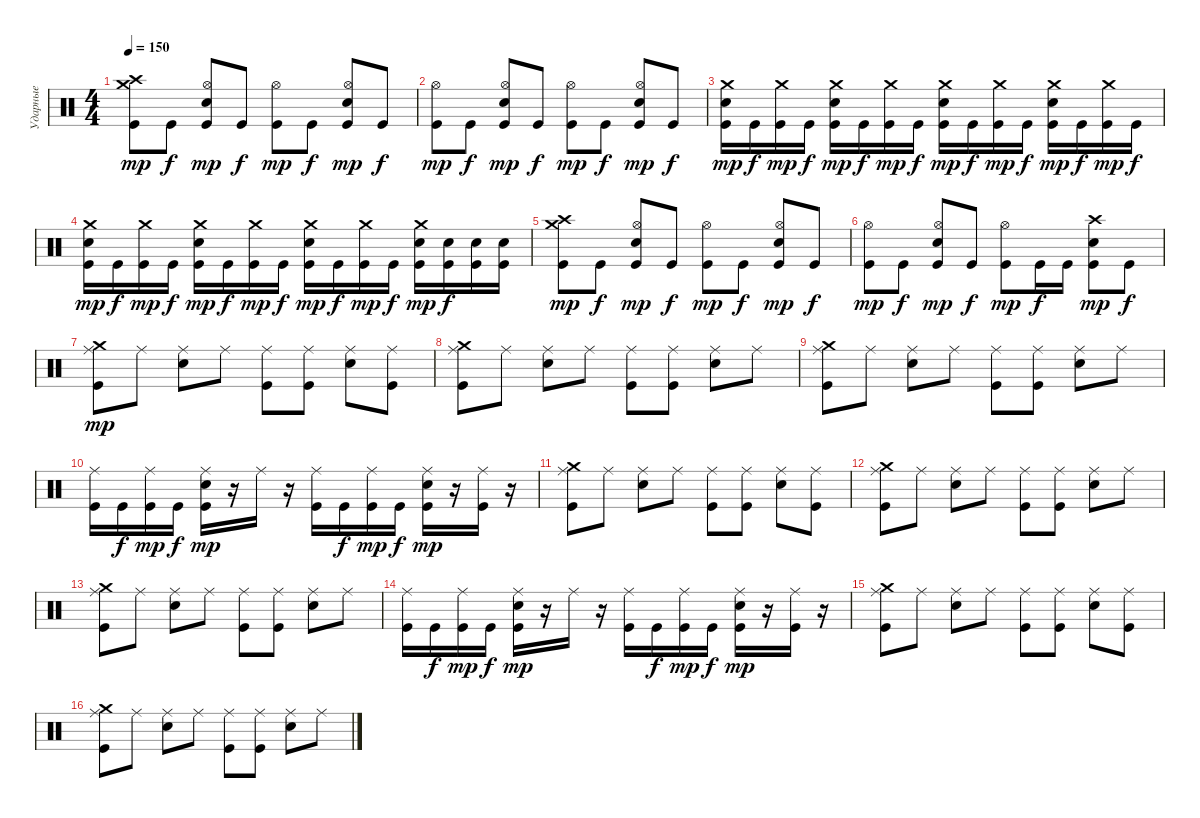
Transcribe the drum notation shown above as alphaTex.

\track ("Ударные" "Ударные") {instrument percussion}
\staff {score}
\articulation defaults
\ts (4 4)
\tempo 150
\clef neutral
\ks c
("Crash medium (hit)" "Crash high (hit)" "Kick (hit)").8{dy mp} "Kick (hit)".8{dy f} ("Hi-Hat (open)" "Electric Snare (hit)" "Kick (hit)").8{dy mp} "Kick (hit)".8{dy f} ("Hi-Hat (open)" "Kick (hit)").8{dy mp} "Kick (hit)".8{dy f} ("Hi-Hat (open)" "Electric Snare (hit)" "Kick (hit)").8{dy mp} "Kick (hit)".8{dy f} |
("Hi-Hat (open)" "Kick (hit)").8{dy mp} "Kick (hit)".8{dy f} ("Hi-Hat (open)" "Electric Snare (hit)" "Kick (hit)").8{dy mp} "Kick (hit)".8{dy f} ("Hi-Hat (open)" "Kick (hit)").8{dy mp} "Kick (hit)".8{dy f} ("Hi-Hat (open)" "Electric Snare (hit)" "Kick (hit)").8{dy mp} "Kick (hit)".8{dy f} |
("Crash medium (hit)" "Electric Snare (hit)" "Kick (hit)").16{dy mp} "Kick (hit)".16{dy f} ("Crash medium (hit)" "Kick (hit)").16{dy mp} "Kick (hit)".16{dy f} ("Crash medium (hit)" "Electric Snare (hit)" "Kick (hit)").16{dy mp} "Kick (hit)".16{dy f} ("Crash medium (hit)" "Kick (hit)").16{dy mp} "Kick (hit)".16{dy f} ("Crash medium (hit)" "Electric Snare (hit)" "Kick (hit)").16{dy mp} "Kick (hit)".16{dy f} ("Crash medium (hit)" "Kick (hit)").16{dy mp} "Kick (hit)".16{dy f} ("Crash medium (hit)" "Electric Snare (hit)" "Kick (hit)").16{dy mp} "Kick (hit)".16{dy f} ("Crash medium (hit)" "Kick (hit)").16{dy mp} "Kick (hit)".16{dy f} |
("Crash medium (hit)" "Electric Snare (hit)" "Kick (hit)").16{dy mp} "Kick (hit)".16{dy f} ("Crash medium (hit)" "Kick (hit)").16{dy mp} "Kick (hit)".16{dy f} ("Crash medium (hit)" "Electric Snare (hit)" "Kick (hit)").16{dy mp} "Kick (hit)".16{dy f} ("Crash medium (hit)" "Kick (hit)").16{dy mp} "Kick (hit)".16{dy f} ("Crash medium (hit)" "Electric Snare (hit)" "Kick (hit)").16{dy mp} "Kick (hit)".16{dy f} ("Crash medium (hit)" "Kick (hit)").16{dy mp} "Kick (hit)".16{dy f} ("Crash medium (hit)" "Electric Snare (hit)" "Kick (hit)").16{dy mp} ("Electric Snare (hit)" "Kick (hit)").16{dy f} ("Electric Snare (hit)" "Kick (hit)").16 ("Electric Snare (hit)" "Kick (hit)").16 |
("Crash medium (hit)" "Crash high (hit)" "Kick (hit)").8{dy mp} "Kick (hit)".8{dy f} ("Hi-Hat (open)" "Electric Snare (hit)" "Kick (hit)").8{dy mp} "Kick (hit)".8{dy f} ("Hi-Hat (open)" "Kick (hit)").8{dy mp} "Kick (hit)".8{dy f} ("Hi-Hat (open)" "Electric Snare (hit)" "Kick (hit)").8{dy mp} "Kick (hit)".8{dy f} |
("Hi-Hat (open)" "Kick (hit)").8{dy mp} "Kick (hit)".8{dy f} ("Hi-Hat (open)" "Electric Snare (hit)" "Kick (hit)").8{dy mp} "Kick (hit)".8{dy f} ("Hi-Hat (open)" "Kick (hit)").8{dy mp} "Kick (hit)".16{dy f} "Kick (hit)".16 ("Crash high (hit)" "Electric Snare (hit)" "Kick (hit)").8{dy mp} "Kick (hit)".8{dy f} |
("Crash medium (hit)" "Ride (middle)" "Kick (hit)").8{dy mp} "Ride (middle)".8 ("Ride (middle)" "Electric Snare (hit)").8 "Ride (middle)".8 ("Ride (middle)" "Kick (hit)").8 ("Ride (middle)" "Kick (hit)").8 ("Ride (middle)" "Electric Snare (hit)").8 ("Ride (middle)" "Kick (hit)").8 |
("Crash medium (hit)" "Ride (middle)" "Kick (hit)").8 "Ride (middle)".8 ("Ride (middle)" "Electric Snare (hit)").8 "Ride (middle)".8 ("Ride (middle)" "Kick (hit)").8 ("Ride (middle)" "Kick (hit)").8 ("Ride (middle)" "Electric Snare (hit)").8 "Ride (middle)".8 |
("Crash medium (hit)" "Ride (middle)" "Kick (hit)").8 "Ride (middle)".8 ("Ride (middle)" "Electric Snare (hit)").8 "Ride (middle)".8 ("Ride (middle)" "Kick (hit)").8 ("Ride (middle)" "Kick (hit)").8 ("Ride (middle)" "Electric Snare (hit)").8 "Ride (middle)".8 |
("Ride (middle)" "Kick (hit)").16 "Kick (hit)".16{dy f} ("Ride (middle)" "Kick (hit)").16{dy mp} "Kick (hit)".16{dy f} ("Ride (middle)" "Electric Snare (hit)" "Kick (hit)").16{dy mp} r.16 "Ride (middle)".16 r.16 ("Ride (middle)" "Kick (hit)").16 "Kick (hit)".16{dy f} ("Ride (middle)" "Kick (hit)").16{dy mp} "Kick (hit)".16{dy f} ("Ride (middle)" "Electric Snare (hit)" "Kick (hit)").16{dy mp} r.16 ("Ride (middle)" "Kick (hit)").16 r.16 |
("Crash medium (hit)" "Ride (middle)" "Kick (hit)").8 "Ride (middle)".8 ("Ride (middle)" "Electric Snare (hit)").8 "Ride (middle)".8 ("Ride (middle)" "Kick (hit)").8 ("Ride (middle)" "Kick (hit)").8 ("Ride (middle)" "Electric Snare (hit)").8 ("Ride (middle)" "Kick (hit)").8 |
("Crash medium (hit)" "Ride (middle)" "Kick (hit)").8 "Ride (middle)".8 ("Ride (middle)" "Electric Snare (hit)").8 "Ride (middle)".8 ("Ride (middle)" "Kick (hit)").8 ("Ride (middle)" "Kick (hit)").8 ("Ride (middle)" "Electric Snare (hit)").8 "Ride (middle)".8 |
("Crash medium (hit)" "Ride (middle)" "Kick (hit)").8 "Ride (middle)".8 ("Ride (middle)" "Electric Snare (hit)").8 "Ride (middle)".8 ("Ride (middle)" "Kick (hit)").8 ("Ride (middle)" "Kick (hit)").8 ("Ride (middle)" "Electric Snare (hit)").8 "Ride (middle)".8 |
("Ride (middle)" "Kick (hit)").16 "Kick (hit)".16{dy f} ("Ride (middle)" "Kick (hit)").16{dy mp} "Kick (hit)".16{dy f} ("Ride (middle)" "Electric Snare (hit)" "Kick (hit)").16{dy mp} r.16 "Ride (middle)".16 r.16 ("Ride (middle)" "Kick (hit)").16 "Kick (hit)".16{dy f} ("Ride (middle)" "Kick (hit)").16{dy mp} "Kick (hit)".16{dy f} ("Ride (middle)" "Electric Snare (hit)" "Kick (hit)").16{dy mp} r.16 ("Ride (middle)" "Kick (hit)").16 r.16 |
("Crash medium (hit)" "Ride (middle)" "Kick (hit)").8 "Ride (middle)".8 ("Ride (middle)" "Electric Snare (hit)").8 "Ride (middle)".8 ("Ride (middle)" "Kick (hit)").8 ("Ride (middle)" "Kick (hit)").8 ("Ride (middle)" "Electric Snare (hit)").8 ("Ride (middle)" "Kick (hit)").8 |
("Crash medium (hit)" "Ride (middle)" "Kick (hit)").8 "Ride (middle)".8 ("Ride (middle)" "Electric Snare (hit)").8 "Ride (middle)".8 ("Ride (middle)" "Kick (hit)").8 ("Ride (middle)" "Kick (hit)").8 ("Ride (middle)" "Electric Snare (hit)").8 "Ride (middle)".8
